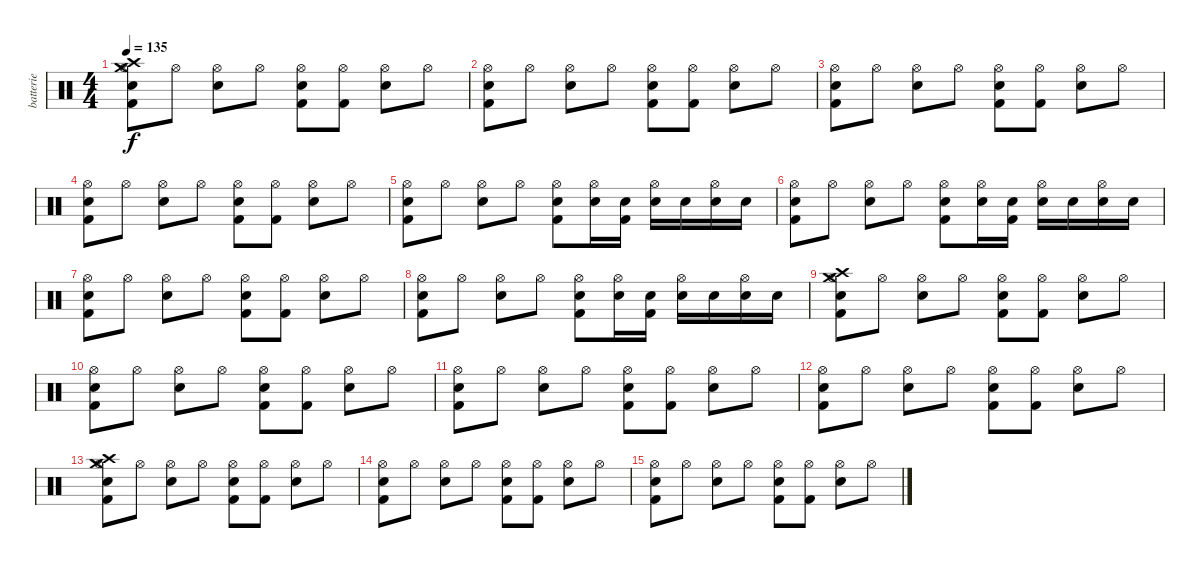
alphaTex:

\track ("batterie" "batterie") {instrument percussion}
\staff {score}
\articulation defaults
\ts (4 4)
\tempo 135
\clef neutral
\ks c
("Kick (hit) 2" "Crash medium (hit)" "Electric Snare (hit)" "Crash high (hit)" "Hi-Hat (open)").8{dy f} "Hi-Hat (open)".8 ("Electric Snare (hit)" "Hi-Hat (open)").8 "Hi-Hat (open)".8 ("Kick (hit) 2" "Electric Snare (hit)" "Hi-Hat (open)").8 ("Kick (hit) 2" "Hi-Hat (open)").8 ("Electric Snare (hit)" "Hi-Hat (open)").8 "Hi-Hat (open)".8 |
("Kick (hit) 2" "Electric Snare (hit)" "Hi-Hat (open)").8 "Hi-Hat (open)".8 ("Electric Snare (hit)" "Hi-Hat (open)").8 "Hi-Hat (open)".8 ("Kick (hit) 2" "Electric Snare (hit)" "Hi-Hat (open)").8 ("Kick (hit) 2" "Hi-Hat (open)").8 ("Electric Snare (hit)" "Hi-Hat (open)").8 "Hi-Hat (open)".8 |
("Kick (hit) 2" "Electric Snare (hit)" "Hi-Hat (open)").8 "Hi-Hat (open)".8 ("Electric Snare (hit)" "Hi-Hat (open)").8 "Hi-Hat (open)".8 ("Kick (hit) 2" "Electric Snare (hit)" "Hi-Hat (open)").8 ("Kick (hit) 2" "Hi-Hat (open)").8 ("Electric Snare (hit)" "Hi-Hat (open)").8 "Hi-Hat (open)".8 |
("Kick (hit) 2" "Electric Snare (hit)" "Hi-Hat (open)").8 "Hi-Hat (open)".8 ("Electric Snare (hit)" "Hi-Hat (open)").8 "Hi-Hat (open)".8 ("Kick (hit) 2" "Electric Snare (hit)" "Hi-Hat (open)").8 ("Kick (hit) 2" "Hi-Hat (open)").8 ("Electric Snare (hit)" "Hi-Hat (open)").8 "Hi-Hat (open)".8 |
("Kick (hit) 2" "Electric Snare (hit)" "Hi-Hat (open)").8 "Hi-Hat (open)".8 ("Electric Snare (hit)" "Hi-Hat (open)").8 "Hi-Hat (open)".8 ("Kick (hit) 2" "Electric Snare (hit)" "Hi-Hat (open)").8 ("Electric Snare (hit)" "Hi-Hat (open)").16 ("Kick (hit) 2" "Electric Snare (hit)").16 ("Electric Snare (hit)" "Hi-Hat (open)").16 "Electric Snare (hit)".16 ("Electric Snare (hit)" "Hi-Hat (open)").16 "Electric Snare (hit)".16 |
("Kick (hit) 2" "Electric Snare (hit)" "Hi-Hat (open)").8 "Hi-Hat (open)".8 ("Electric Snare (hit)" "Hi-Hat (open)").8 "Hi-Hat (open)".8 ("Kick (hit) 2" "Electric Snare (hit)" "Hi-Hat (open)").8 ("Electric Snare (hit)" "Hi-Hat (open)").16 ("Kick (hit) 2" "Electric Snare (hit)").16 ("Electric Snare (hit)" "Hi-Hat (open)").16 "Electric Snare (hit)".16 ("Electric Snare (hit)" "Hi-Hat (open)").16 "Electric Snare (hit)".16 |
("Kick (hit) 2" "Electric Snare (hit)" "Hi-Hat (open)").8 "Hi-Hat (open)".8 ("Electric Snare (hit)" "Hi-Hat (open)").8 "Hi-Hat (open)".8 ("Kick (hit) 2" "Electric Snare (hit)" "Hi-Hat (open)").8 ("Kick (hit) 2" "Hi-Hat (open)").8 ("Electric Snare (hit)" "Hi-Hat (open)").8 "Hi-Hat (open)".8 |
("Kick (hit) 2" "Electric Snare (hit)" "Hi-Hat (open)").8 "Hi-Hat (open)".8 ("Electric Snare (hit)" "Hi-Hat (open)").8 "Hi-Hat (open)".8 ("Kick (hit) 2" "Electric Snare (hit)" "Hi-Hat (open)").8 ("Electric Snare (hit)" "Hi-Hat (open)").16 ("Kick (hit) 2" "Electric Snare (hit)").16 ("Electric Snare (hit)" "Hi-Hat (open)").16 "Electric Snare (hit)".16 ("Electric Snare (hit)" "Hi-Hat (open)").16 "Electric Snare (hit)".16 |
("Kick (hit) 2" "Crash medium (hit)" "Electric Snare (hit)" "Crash high (hit)" "Hi-Hat (open)").8 "Hi-Hat (open)".8 ("Electric Snare (hit)" "Hi-Hat (open)").8 "Hi-Hat (open)".8 ("Kick (hit) 2" "Electric Snare (hit)" "Hi-Hat (open)").8 ("Kick (hit) 2" "Hi-Hat (open)").8 ("Electric Snare (hit)" "Hi-Hat (open)").8 "Hi-Hat (open)".8 |
("Kick (hit) 2" "Electric Snare (hit)" "Hi-Hat (open)").8 "Hi-Hat (open)".8 ("Electric Snare (hit)" "Hi-Hat (open)").8 "Hi-Hat (open)".8 ("Kick (hit) 2" "Electric Snare (hit)" "Hi-Hat (open)").8 ("Kick (hit) 2" "Hi-Hat (open)").8 ("Electric Snare (hit)" "Hi-Hat (open)").8 "Hi-Hat (open)".8 |
("Kick (hit) 2" "Electric Snare (hit)" "Hi-Hat (open)").8 "Hi-Hat (open)".8 ("Electric Snare (hit)" "Hi-Hat (open)").8 "Hi-Hat (open)".8 ("Kick (hit) 2" "Electric Snare (hit)" "Hi-Hat (open)").8 ("Kick (hit) 2" "Hi-Hat (open)").8 ("Electric Snare (hit)" "Hi-Hat (open)").8 "Hi-Hat (open)".8 |
("Kick (hit) 2" "Electric Snare (hit)" "Hi-Hat (open)").8 "Hi-Hat (open)".8 ("Electric Snare (hit)" "Hi-Hat (open)").8 "Hi-Hat (open)".8 ("Kick (hit) 2" "Electric Snare (hit)" "Hi-Hat (open)").8 ("Kick (hit) 2" "Hi-Hat (open)").8 ("Electric Snare (hit)" "Hi-Hat (open)").8 "Hi-Hat (open)".8 |
("Kick (hit) 2" "Crash medium (hit)" "Electric Snare (hit)" "Crash high (hit)" "Hi-Hat (open)").8 "Hi-Hat (open)".8 ("Electric Snare (hit)" "Hi-Hat (open)").8 "Hi-Hat (open)".8 ("Kick (hit) 2" "Electric Snare (hit)" "Hi-Hat (open)").8 ("Kick (hit) 2" "Hi-Hat (open)").8 ("Electric Snare (hit)" "Hi-Hat (open)").8 "Hi-Hat (open)".8 |
("Kick (hit) 2" "Electric Snare (hit)" "Hi-Hat (open)").8 "Hi-Hat (open)".8 ("Electric Snare (hit)" "Hi-Hat (open)").8 "Hi-Hat (open)".8 ("Kick (hit) 2" "Electric Snare (hit)" "Hi-Hat (open)").8 ("Kick (hit) 2" "Hi-Hat (open)").8 ("Electric Snare (hit)" "Hi-Hat (open)").8 "Hi-Hat (open)".8 |
("Kick (hit) 2" "Electric Snare (hit)" "Hi-Hat (open)").8 "Hi-Hat (open)".8 ("Electric Snare (hit)" "Hi-Hat (open)").8 "Hi-Hat (open)".8 ("Kick (hit) 2" "Electric Snare (hit)" "Hi-Hat (open)").8 ("Kick (hit) 2" "Hi-Hat (open)").8 ("Electric Snare (hit)" "Hi-Hat (open)").8 "Hi-Hat (open)".8
